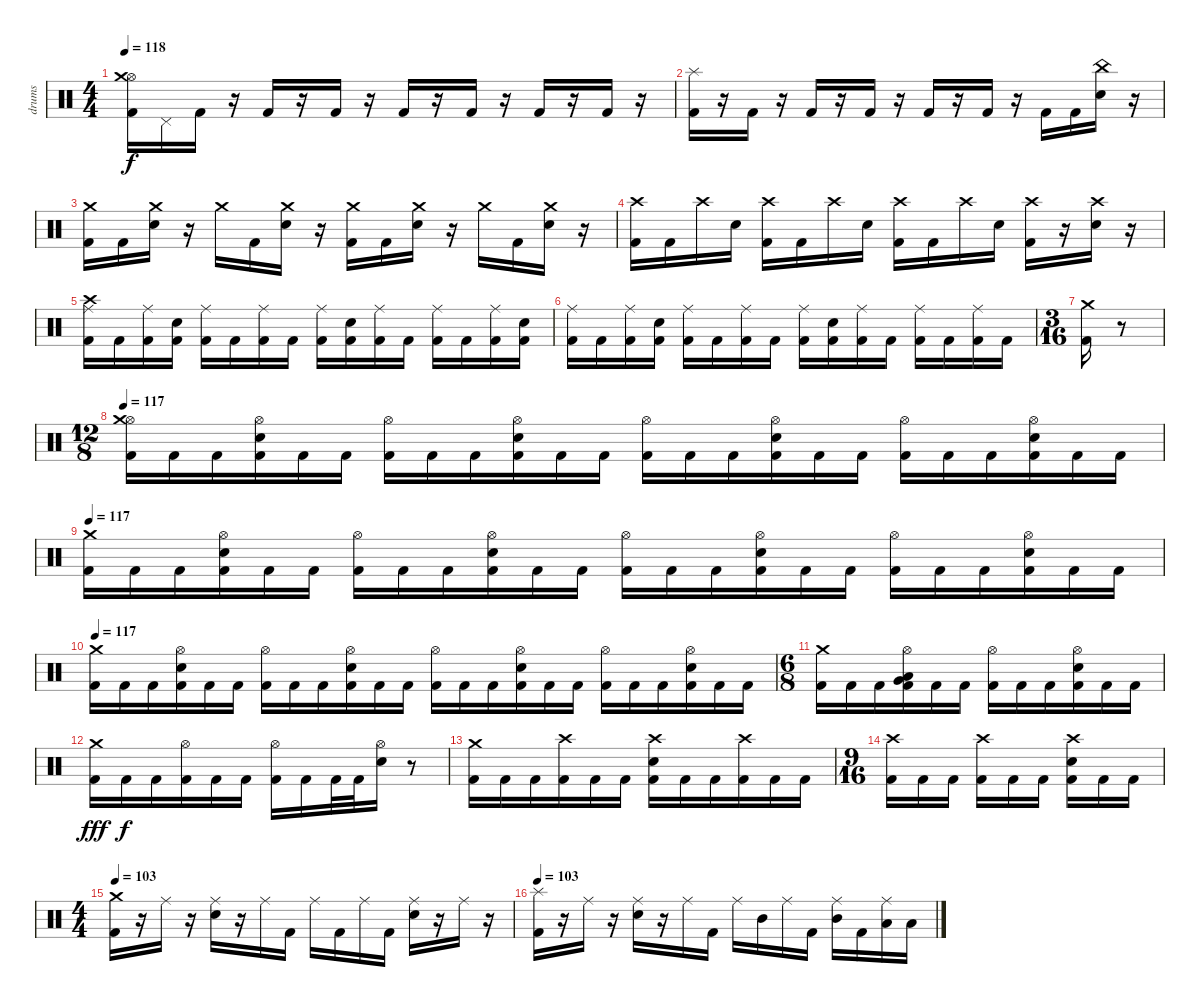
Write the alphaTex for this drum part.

\track ("drums" "drums") {instrument percussion}
\staff {score}
\articulation defaults
\ts (4 4)
\tempo 118
\clef neutral
\ks c
("Kick (hit) 2" "Hi-Hat (open)" "Crash medium (hit)").16{dy f} "Pedal Hi-Hat (hit)".16 "Kick (hit) 2".16 r.16 "Kick (hit) 2".16 r.16 "Kick (hit) 2".16 r.16 "Kick (hit) 2".16 r.16 "Kick (hit) 2".16 r.16 "Kick (hit) 2".16 r.16 "Kick (hit) 2".16 r.16 |
("Kick (hit) 2" "Splash (hit)").16 r.16 "Kick (hit) 2".16 r.16 "Kick (hit) 2".16 r.16 "Kick (hit) 2".16 r.16 "Kick (hit) 2".16 r.16 "Kick (hit) 2".16 r.16 "Kick (hit) 2".16 "Kick (hit) 2".16 ("Snare (hit) 2" "China (hit)").16 r.16 |
("Kick (hit) 2" "Crash medium (hit)").16 "Kick (hit) 2".16 ("Snare (hit) 2" "Crash medium (hit)").16 r.16 "Crash medium (hit)".16 "Kick (hit) 2".16 ("Snare (hit) 2" "Crash medium (hit)").16 r.16 ("Kick (hit) 2" "Crash medium (hit)").16 "Kick (hit) 2".16 ("Snare (hit) 2" "Crash medium (hit)").16 r.16 "Crash medium (hit)".16 "Kick (hit) 2".16 ("Snare (hit) 2" "Crash medium (hit)").16 r.16 |
("Kick (hit) 2" "Crash high (hit)").16 "Kick (hit) 2".16 "Crash high (hit)".16 "Snare (hit) 2".16 ("Kick (hit) 2" "Crash high (hit)").16 "Kick (hit) 2".16 "Crash high (hit)".16 "Snare (hit) 2".16 ("Kick (hit) 2" "Crash high (hit)").16 "Kick (hit) 2".16 "Crash high (hit)".16 "Snare (hit) 2".16 ("Kick (hit) 2" "Crash high (hit)").16 r.16 ("Snare (hit) 2" "Crash high (hit)").16 r.16 |
("Kick (hit) 2" "Crash high (hit)" "Ride (middle)").16 "Kick (hit) 2".16 ("Kick (hit) 2" "Ride (middle)").16 ("Kick (hit) 2" "Snare (hit) 2").16 ("Kick (hit) 2" "Ride (middle)").16 "Kick (hit) 2".16 ("Kick (hit) 2" "Ride (middle)").16 "Kick (hit) 2".16 ("Kick (hit) 2" "Ride (middle)").16 ("Kick (hit) 2" "Snare (hit) 2").16 ("Kick (hit) 2" "Ride (middle)").16 "Kick (hit) 2".16 ("Kick (hit) 2" "Ride (middle)").16 "Kick (hit) 2".16 ("Kick (hit) 2" "Ride (middle)").16 ("Kick (hit) 2" "Snare (hit) 2").16 |
("Kick (hit) 2" "Ride (middle)").16 "Kick (hit) 2".16 ("Kick (hit) 2" "Ride (middle)").16 ("Kick (hit) 2" "Snare (hit) 2").16 ("Kick (hit) 2" "Ride (middle)").16 "Kick (hit) 2".16 ("Kick (hit) 2" "Ride (middle)").16 "Kick (hit) 2".16 ("Kick (hit) 2" "Ride (middle)").16 ("Kick (hit) 2" "Snare (hit) 2").16 ("Kick (hit) 2" "Ride (middle)").16 "Kick (hit) 2".16 ("Kick (hit) 2" "Ride (middle)").16 "Kick (hit) 2".16 ("Kick (hit) 2" "Ride (middle)").16 "Kick (hit) 2".16 |
\ts (3 16)
("Kick (hit) 2" "Crash medium (hit)").16 r.8 |
\ts (12 8)
\tempo 117
("Kick (hit) 2" "Hi-Hat (open)" "Crash medium (hit)").16 "Kick (hit) 2".16 "Kick (hit) 2".16 ("Kick (hit) 2" "Snare (hit) 2" "Hi-Hat (open)").16 "Kick (hit) 2".16 "Kick (hit) 2".16 ("Kick (hit) 2" "Hi-Hat (open)").16 "Kick (hit) 2".16 "Kick (hit) 2".16 ("Kick (hit) 2" "Snare (hit) 2" "Hi-Hat (open)").16 "Kick (hit) 2".16 "Kick (hit) 2".16 ("Kick (hit) 2" "Hi-Hat (open)").16 "Kick (hit) 2".16 "Kick (hit) 2".16 ("Kick (hit) 2" "Snare (hit) 2" "Hi-Hat (open)").16 "Kick (hit) 2".16 "Kick (hit) 2".16 ("Kick (hit) 2" "Hi-Hat (open)").16 "Kick (hit) 2".16 "Kick (hit) 2".16 ("Kick (hit) 2" "Snare (hit) 2" "Hi-Hat (open)").16 "Kick (hit) 2".16 "Kick (hit) 2".16 |
\tempo 117
("Kick (hit) 2" "Crash medium (hit)").16 "Kick (hit) 2".16 "Kick (hit) 2".16 ("Kick (hit) 2" "Snare (hit) 2" "Hi-Hat (open)").16 "Kick (hit) 2".16 "Kick (hit) 2".16 ("Kick (hit) 2" "Hi-Hat (open)").16 "Kick (hit) 2".16 "Kick (hit) 2".16 ("Kick (hit) 2" "Snare (hit) 2" "Hi-Hat (open)").16 "Kick (hit) 2".16 "Kick (hit) 2".16 ("Kick (hit) 2" "Hi-Hat (open)").16 "Kick (hit) 2".16 "Kick (hit) 2".16 ("Kick (hit) 2" "Snare (hit) 2" "Hi-Hat (open)").16 "Kick (hit) 2".16 "Kick (hit) 2".16 ("Kick (hit) 2" "Hi-Hat (open)").16 "Kick (hit) 2".16 "Kick (hit) 2".16 ("Kick (hit) 2" "Snare (hit) 2" "Hi-Hat (open)").16 "Kick (hit) 2".16 "Kick (hit) 2".16 |
\tempo 117
("Kick (hit) 2" "Crash medium (hit)").16 "Kick (hit) 2".16 "Kick (hit) 2".16 ("Kick (hit) 2" "Snare (hit) 2" "Hi-Hat (open)").16 "Kick (hit) 2".16 "Kick (hit) 2".16 ("Kick (hit) 2" "Hi-Hat (open)").16 "Kick (hit) 2".16 "Kick (hit) 2".16 ("Kick (hit) 2" "Snare (hit) 2" "Hi-Hat (open)").16 "Kick (hit) 2".16 "Kick (hit) 2".16 ("Kick (hit) 2" "Hi-Hat (open)").16 "Kick (hit) 2".16 "Kick (hit) 2".16 ("Kick (hit) 2" "Snare (hit) 2" "Hi-Hat (open)").16 "Kick (hit) 2".16 "Kick (hit) 2".16 ("Kick (hit) 2" "Hi-Hat (open)").16 "Kick (hit) 2".16 "Kick (hit) 2".16 ("Kick (hit) 2" "Snare (hit) 2" "Hi-Hat (open)").16 "Kick (hit) 2".16 "Kick (hit) 2".16 |
\ts (6 8)
("Kick (hit) 2" "Crash medium (hit)").16 "Kick (hit) 2".16 "Kick (hit) 2".16 ("Kick (hit) 2" "Very Low Tom (hit)" "Low Tom (hit)" "Hi-Hat (open)").16 "Kick (hit) 2".16 "Kick (hit) 2".16 ("Kick (hit) 2" "Hi-Hat (open)").16 "Kick (hit) 2".16 "Kick (hit) 2".16 ("Kick (hit) 2" "Snare (hit) 2" "Hi-Hat (open)").16 "Kick (hit) 2".16 "Kick (hit) 2".16 |
("Kick (hit) 2" "Crash medium (hit)").16{dy fff} "Kick (hit) 2".16{dy f} "Kick (hit) 2".16 ("Kick (hit) 2" "Hi-Hat (open)").16 "Kick (hit) 2".16 "Kick (hit) 2".16 ("Kick (hit) 2" "Hi-Hat (open)").16 "Kick (hit) 2".16 "Kick (hit) 2".32 "Kick (hit) 2".32 ("Snare (hit) 2" "Hi-Hat (open)").16 r.8 |
("Kick (hit) 2" "Crash medium (hit)").16 "Kick (hit) 2".16 "Kick (hit) 2".16 ("Kick (hit) 2" "Crash high (hit)").16 "Kick (hit) 2".16 "Kick (hit) 2".16 ("Kick (hit) 2" "Snare (hit) 2" "Crash high (hit)").16 "Kick (hit) 2".16 "Kick (hit) 2".16 ("Kick (hit) 2" "Crash high (hit)").16 "Kick (hit) 2".16 "Kick (hit) 2".16 |
\ts (9 16)
("Kick (hit) 2" "Crash high (hit)").16 "Kick (hit) 2".16 "Kick (hit) 2".16 ("Kick (hit) 2" "Crash high (hit)").16 "Kick (hit) 2".16 "Kick (hit) 2".16 ("Kick (hit) 2" "Snare (hit) 2" "Crash high (hit)").16 "Kick (hit) 2".16 "Kick (hit) 2".16 |
\ts (4 4)
\tempo 103
("Kick (hit) 2" "Crash medium (hit)").16 r.16 "Ride (middle)".16 r.16 ("Snare (hit) 2" "Ride (middle)").16 r.16 "Ride (middle)".16 "Kick (hit) 2".16 "Ride (middle)".16 "Kick (hit) 2".16 "Ride (middle)".16 "Kick (hit) 2".16 ("Snare (hit) 2" "Ride (middle)").16 r.16 "Ride (middle)".16 r.16 |
\tempo 103
("Kick (hit) 2" "Splash (hit)").16 r.16 "Ride (middle)".16 r.16 ("Snare (hit) 2" "Ride (middle)").16 r.16 "Ride (middle)".16 "Kick (hit) 2".16 "Ride (middle)".16 "Mid Tom (hit)".16 "Ride (middle)".16 "Kick (hit) 2".16 ("Mid Tom (hit)" "Ride (middle)").16 "Kick (hit) 2".16 ("Low Floor Tom (hit)" "Ride (middle)").16 "Low Floor Tom (hit)".16
